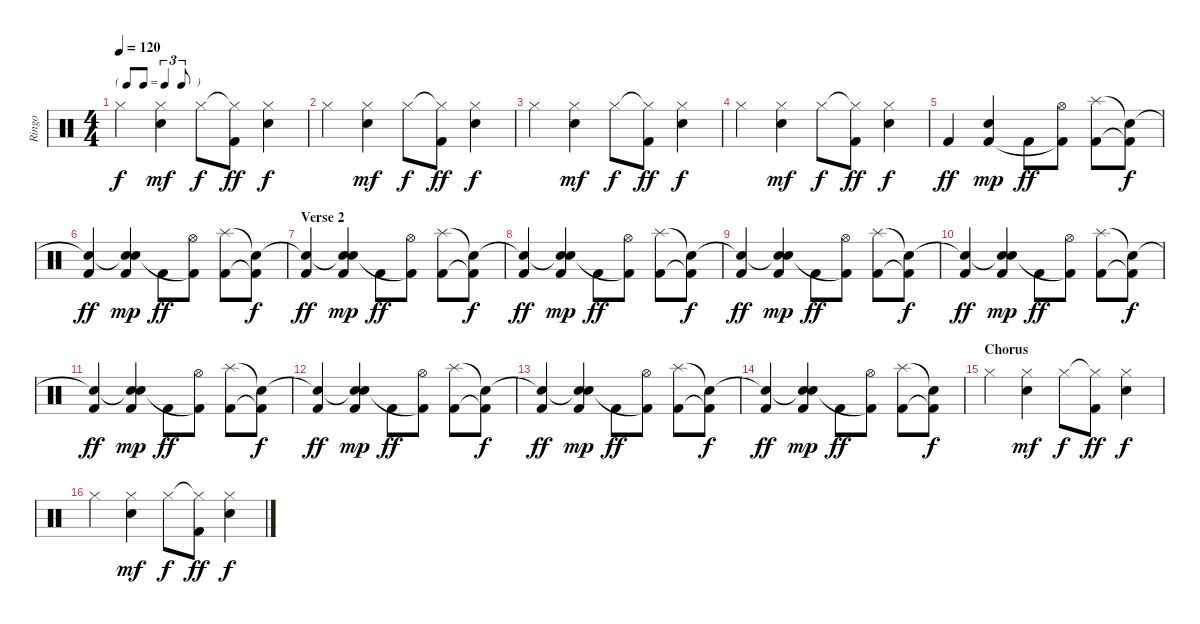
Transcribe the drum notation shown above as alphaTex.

\track ("Ringo" "Ringo") {instrument percussion}
\staff {score}
\articulation defaults
\ts (4 4)
\tf triplet8th
\tempo 120
\clef neutral
\ks c "Hi-Hat (closed)".4{dy f}
("Hi-Hat (closed)" "Snare (hit) 2").4{dy mf} "Hi-Hat (closed)".8{dy f} ("Hi-Hat (closed)"{t} "Kick (hit) 2").8{dy ff} ("Hi-Hat (closed)" "Snare (hit) 2").4{dy f} |
"Hi-Hat (closed)".4 ("Hi-Hat (closed)" "Snare (hit) 2").4{dy mf} "Hi-Hat (closed)".8{dy f} ("Hi-Hat (closed)"{t} "Kick (hit) 2").8{dy ff} ("Hi-Hat (closed)" "Snare (hit) 2").4{dy f} |
"Hi-Hat (closed)".4 ("Hi-Hat (closed)" "Snare (hit) 2").4{dy mf} "Hi-Hat (closed)".8{dy f} ("Hi-Hat (closed)"{t} "Kick (hit) 2").8{dy ff} ("Hi-Hat (closed)" "Snare (hit) 2").4{dy f} |
"Hi-Hat (closed)".4 ("Hi-Hat (closed)" "Snare (hit) 2").4{dy mf} "Hi-Hat (closed)".8{dy f} ("Hi-Hat (closed)"{t} "Kick (hit) 2").8{dy ff} ("Hi-Hat (closed)" "Snare (hit) 2").4{dy f} |
"Kick (hit) 2".4{dy ff} ("Snare (hit) 2" "Kick (hit) 2").4{dy mp} "Kick (hit) 2".8{dy ff} ("Hi-Hat (open)" "Kick (hit) 2"{t}).8 ("Splash (hit)" "Kick (hit) 2").8 ("Snare (hit)"{t} "Kick (hit) 2"{t}).8{dy f} |
("Snare (hit)"{t} "Kick (hit) 2").4{dy ff} ("Snare (hit)"{t} "Snare (hit) 2" "Kick (hit) 2").4{dy mp} "Kick (hit) 2".8{dy ff} ("Hi-Hat (open)" "Kick (hit) 2"{t}).8 ("Splash (hit)" "Kick (hit) 2").8 ("Snare (hit)"{t} "Kick (hit) 2"{t}).8{dy f} |
\section ("" "Verse 2")
("Snare (hit)"{t} "Kick (hit) 2").4{dy ff} ("Snare (hit)"{t} "Snare (hit) 2" "Kick (hit) 2").4{dy mp} "Kick (hit) 2".8{dy ff} ("Hi-Hat (open)" "Kick (hit) 2"{t}).8 ("Splash (hit)" "Kick (hit) 2").8 ("Snare (hit)"{t} "Kick (hit) 2"{t}).8{dy f} |
("Snare (hit)"{t} "Kick (hit) 2").4{dy ff} ("Snare (hit)"{t} "Snare (hit) 2" "Kick (hit) 2").4{dy mp} "Kick (hit) 2".8{dy ff} ("Hi-Hat (open)" "Kick (hit) 2"{t}).8 ("Splash (hit)" "Kick (hit) 2").8 ("Snare (hit)"{t} "Kick (hit) 2"{t}).8{dy f} |
("Snare (hit)"{t} "Kick (hit) 2").4{dy ff} ("Snare (hit)"{t} "Snare (hit) 2" "Kick (hit) 2").4{dy mp} "Kick (hit) 2".8{dy ff} ("Hi-Hat (open)" "Kick (hit) 2"{t}).8 ("Splash (hit)" "Kick (hit) 2").8 ("Snare (hit)"{t} "Kick (hit) 2"{t}).8{dy f} |
("Snare (hit)"{t} "Kick (hit) 2").4{dy ff} ("Snare (hit)"{t} "Snare (hit) 2" "Kick (hit) 2").4{dy mp} "Kick (hit) 2".8{dy ff} ("Hi-Hat (open)" "Kick (hit) 2"{t}).8 ("Splash (hit)" "Kick (hit) 2").8 ("Snare (hit)"{t} "Kick (hit) 2"{t}).8{dy f} |
("Snare (hit)"{t} "Kick (hit) 2").4{dy ff} ("Snare (hit)"{t} "Snare (hit) 2" "Kick (hit) 2").4{dy mp} "Kick (hit) 2".8{dy ff} ("Hi-Hat (open)" "Kick (hit) 2"{t}).8 ("Splash (hit)" "Kick (hit) 2").8 ("Snare (hit)"{t} "Kick (hit) 2"{t}).8{dy f} |
("Snare (hit)"{t} "Kick (hit) 2").4{dy ff} ("Snare (hit)"{t} "Snare (hit) 2" "Kick (hit) 2").4{dy mp} "Kick (hit) 2".8{dy ff} ("Hi-Hat (open)" "Kick (hit) 2"{t}).8 ("Splash (hit)" "Kick (hit) 2").8 ("Snare (hit)"{t} "Kick (hit) 2"{t}).8{dy f} |
("Snare (hit)"{t} "Kick (hit) 2").4{dy ff} ("Snare (hit)"{t} "Snare (hit) 2" "Kick (hit) 2").4{dy mp} "Kick (hit) 2".8{dy ff} ("Hi-Hat (open)" "Kick (hit) 2"{t}).8 ("Splash (hit)" "Kick (hit) 2").8 ("Snare (hit)"{t} "Kick (hit) 2"{t}).8{dy f} |
("Snare (hit)"{t} "Kick (hit) 2").4{dy ff} ("Snare (hit)"{t} "Snare (hit) 2" "Kick (hit) 2").4{dy mp} "Kick (hit) 2".8{dy ff} ("Hi-Hat (open)" "Kick (hit) 2"{t}).8 ("Splash (hit)" "Kick (hit) 2").8 ("Snare (hit)"{t} "Kick (hit) 2"{t}).8{dy f} |
\section ("" "Chorus")
"Hi-Hat (closed)".4 ("Hi-Hat (closed)" "Snare (hit) 2").4{dy mf} "Hi-Hat (closed)".8{dy f} ("Hi-Hat (closed)"{t} "Kick (hit) 2").8{dy ff} ("Hi-Hat (closed)" "Snare (hit) 2").4{dy f} |
"Hi-Hat (closed)".4 ("Hi-Hat (closed)" "Snare (hit) 2").4{dy mf} "Hi-Hat (closed)".8{dy f} ("Hi-Hat (closed)"{t} "Kick (hit) 2").8{dy ff} ("Hi-Hat (closed)" "Snare (hit) 2").4{dy f}
